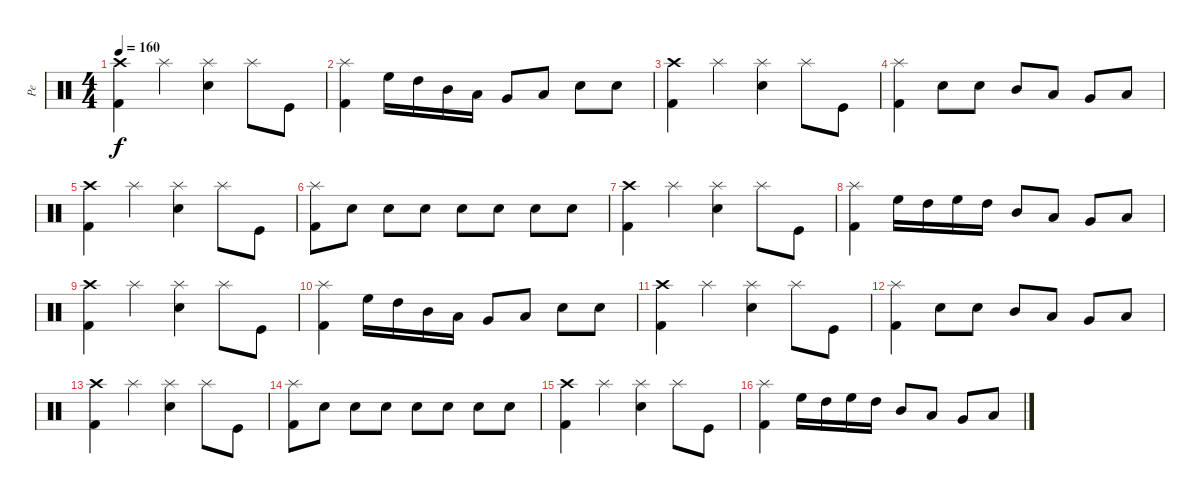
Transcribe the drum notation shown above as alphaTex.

\track ("Pe" "Pe") {instrument percussion}
\staff {score}
\articulation defaults
\ts (4 4)
\tempo 160
\clef neutral
\ks c
("Kick (hit) 2" "Crash high (hit)").4{dy f} "Splash (hit)".4 ("Electric Snare (hit)" "Splash (hit)").4 "Splash (hit)".8 "Kick (hit)".8 |
("Kick (hit) 2" "Splash (hit)").4 "High Floor Tom (hit)".16 "High Tom (hit)".16 "Mid Tom (hit)".16 "Low Tom (hit)".16 "Very Low Tom (hit)".8 "Low Floor Tom (hit)".8 "Electric Snare (hit)".8 "Electric Snare (hit)".8 |
("Kick (hit) 2" "Crash high (hit)").4 "Splash (hit)".4 ("Electric Snare (hit)" "Splash (hit)").4 "Splash (hit)".8 "Kick (hit)".8 |
("Kick (hit) 2" "Splash (hit)").4 "Electric Snare (hit)".8 "Electric Snare (hit)".8 "Mid Tom (hit)".8 "Low Tom (hit)".8 "Very Low Tom (hit)".8 "Low Floor Tom (hit)".8 |
("Kick (hit) 2" "Crash high (hit)").4 "Splash (hit)".4 ("Electric Snare (hit)" "Splash (hit)").4 "Splash (hit)".8 "Kick (hit)".8 |
("Kick (hit) 2" "Splash (hit)").8 "Electric Snare (hit)".8 "Electric Snare (hit)".8 "Electric Snare (hit)".8 "Electric Snare (hit)".8 "Electric Snare (hit)".8 "Electric Snare (hit)".8 "Electric Snare (hit)".8 |
("Kick (hit) 2" "Crash high (hit)").4 "Splash (hit)".4 ("Electric Snare (hit)" "Splash (hit)").4 "Splash (hit)".8 "Kick (hit)".8 |
("Kick (hit) 2" "Splash (hit)").4 "High Floor Tom (hit)".16 "High Tom (hit)".16 "High Floor Tom (hit)".16 "High Tom (hit)".16 "Mid Tom (hit)".8 "Low Tom (hit)".8 "Very Low Tom (hit)".8 "Low Floor Tom (hit)".8 |
("Kick (hit) 2" "Crash high (hit)").4 "Splash (hit)".4 ("Electric Snare (hit)" "Splash (hit)").4 "Splash (hit)".8 "Kick (hit)".8 |
("Kick (hit) 2" "Splash (hit)").4 "High Floor Tom (hit)".16 "High Tom (hit)".16 "Mid Tom (hit)".16 "Low Tom (hit)".16 "Very Low Tom (hit)".8 "Low Floor Tom (hit)".8 "Electric Snare (hit)".8 "Electric Snare (hit)".8 |
("Kick (hit) 2" "Crash high (hit)").4 "Splash (hit)".4 ("Electric Snare (hit)" "Splash (hit)").4 "Splash (hit)".8 "Kick (hit)".8 |
("Kick (hit) 2" "Splash (hit)").4 "Electric Snare (hit)".8 "Electric Snare (hit)".8 "Mid Tom (hit)".8 "Low Tom (hit)".8 "Very Low Tom (hit)".8 "Low Floor Tom (hit)".8 |
("Kick (hit) 2" "Crash high (hit)").4 "Splash (hit)".4 ("Electric Snare (hit)" "Splash (hit)").4 "Splash (hit)".8 "Kick (hit)".8 |
("Kick (hit) 2" "Splash (hit)").8 "Electric Snare (hit)".8 "Electric Snare (hit)".8 "Electric Snare (hit)".8 "Electric Snare (hit)".8 "Electric Snare (hit)".8 "Electric Snare (hit)".8 "Electric Snare (hit)".8 |
("Kick (hit) 2" "Crash high (hit)").4 "Splash (hit)".4 ("Electric Snare (hit)" "Splash (hit)").4 "Splash (hit)".8 "Kick (hit)".8 |
("Kick (hit) 2" "Splash (hit)").4 "High Floor Tom (hit)".16 "High Tom (hit)".16 "High Floor Tom (hit)".16 "High Tom (hit)".16 "Mid Tom (hit)".8 "Low Tom (hit)".8 "Very Low Tom (hit)".8 "Low Floor Tom (hit)".8
